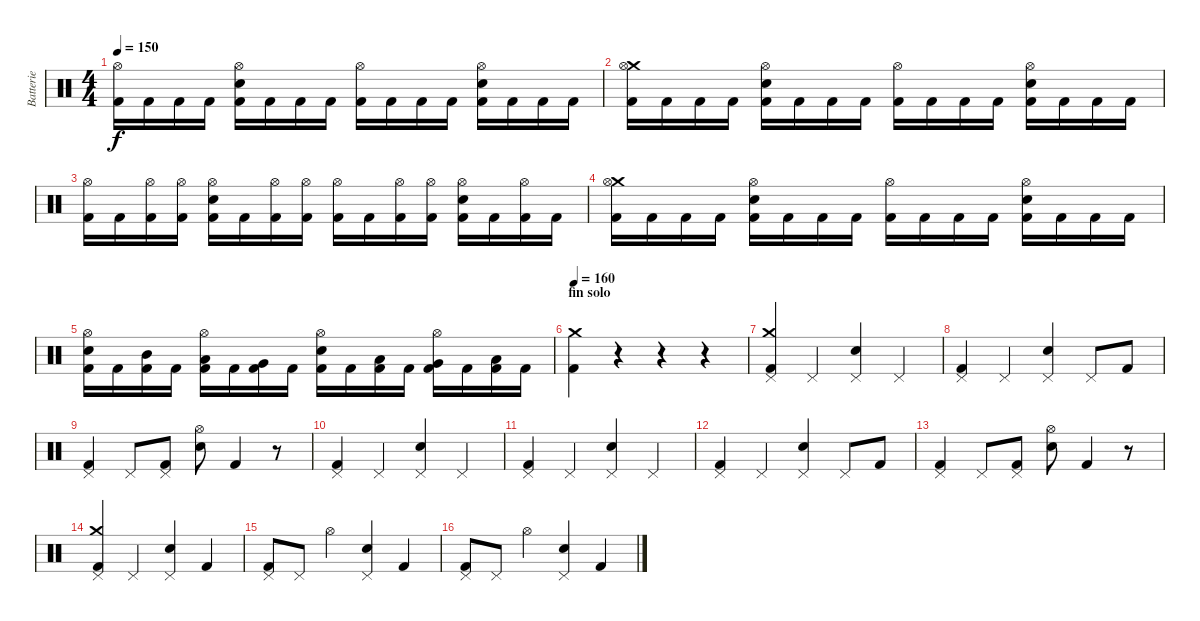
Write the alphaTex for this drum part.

\track ("Batterie" "Batterie") {instrument percussion}
\staff {score}
\articulation defaults
\ts (4 4)
\tempo 150
\clef neutral
\ks c
("Hi-Hat (open)" "Kick (hit) 2").16{dy f} "Kick (hit) 2".16 "Kick (hit) 2".16 "Kick (hit) 2".16 ("Electric Snare (hit)" "Hi-Hat (open)" "Kick (hit) 2").16 "Kick (hit) 2".16 "Kick (hit) 2".16 "Kick (hit) 2".16 ("Hi-Hat (open)" "Kick (hit) 2").16 "Kick (hit) 2".16 "Kick (hit) 2".16 "Kick (hit) 2".16 ("Electric Snare (hit)" "Hi-Hat (open)" "Kick (hit) 2").16 "Kick (hit) 2".16 "Kick (hit) 2".16 "Kick (hit) 2".16 |
("Crash medium (hit)" "Hi-Hat (open)" "Kick (hit) 2").16 "Kick (hit) 2".16 "Kick (hit) 2".16 "Kick (hit) 2".16 ("Electric Snare (hit)" "Hi-Hat (open)" "Kick (hit) 2").16 "Kick (hit) 2".16 "Kick (hit) 2".16 "Kick (hit) 2".16 ("Hi-Hat (open)" "Kick (hit) 2").16 "Kick (hit) 2".16 "Kick (hit) 2".16 "Kick (hit) 2".16 ("Electric Snare (hit)" "Hi-Hat (open)" "Kick (hit) 2").16 "Kick (hit) 2".16 "Kick (hit) 2".16 "Kick (hit) 2".16 |
("Hi-Hat (open)" "Kick (hit) 2").16 "Kick (hit) 2".16 ("Hi-Hat (open)" "Kick (hit) 2").16 ("Hi-Hat (open)" "Kick (hit) 2").16 ("Electric Snare (hit)" "Hi-Hat (open)" "Kick (hit) 2").16 "Kick (hit) 2".16 ("Hi-Hat (open)" "Kick (hit) 2").16 ("Hi-Hat (open)" "Kick (hit) 2").16 ("Hi-Hat (open)" "Kick (hit) 2").16 "Kick (hit) 2".16 ("Hi-Hat (open)" "Kick (hit) 2").16 ("Hi-Hat (open)" "Kick (hit) 2").16 ("Electric Snare (hit)" "Hi-Hat (open)" "Kick (hit) 2").16 "Kick (hit) 2".16 ("Hi-Hat (open)" "Kick (hit) 2").16 "Kick (hit) 2".16 |
("Crash medium (hit)" "Hi-Hat (open)" "Kick (hit) 2").16 "Kick (hit) 2".16 "Kick (hit) 2".16 "Kick (hit) 2".16 ("Electric Snare (hit)" "Hi-Hat (open)" "Kick (hit) 2").16 "Kick (hit) 2".16 "Kick (hit) 2".16 "Kick (hit) 2".16 ("Hi-Hat (open)" "Kick (hit) 2").16 "Kick (hit) 2".16 "Kick (hit) 2".16 "Kick (hit) 2".16 ("Electric Snare (hit)" "Hi-Hat (open)" "Kick (hit) 2").16 "Kick (hit) 2".16 "Kick (hit) 2".16 "Kick (hit) 2".16 |
("Electric Snare (hit)" "Hi-Hat (open)" "Kick (hit) 2").16 "Kick (hit) 2".16 ("Mid Tom (hit)" "Kick (hit) 2").16 "Kick (hit) 2".16 ("Low Tom (hit)" "Hi-Hat (open)" "Kick (hit) 2").16 "Kick (hit) 2".16 ("Very Low Tom (hit)" "Kick (hit) 2").16 "Kick (hit) 2".16 ("Electric Snare (hit)" "Hi-Hat (open)" "Kick (hit) 2").16 "Kick (hit) 2".16 ("Low Tom (hit)" "Kick (hit) 2").16 "Kick (hit) 2".16 ("Very Low Tom (hit)" "Hi-Hat (open)" "Kick (hit) 2").16 "Kick (hit) 2".16 ("Low Floor Tom (hit)" "Kick (hit) 2").16 "Kick (hit) 2".16 |
\section ("" "fin solo")
\tempo 160
("Crash medium (hit)" "Kick (hit) 2").4 r.4 r.4 r.4 |
("Crash medium (hit)" "Pedal Hi-Hat (hit)" "Kick (hit) 2").4 "Pedal Hi-Hat (hit)".4 ("Pedal Hi-Hat (hit)" "Electric Snare (hit)").4 "Pedal Hi-Hat (hit)".4 |
("Pedal Hi-Hat (hit)" "Kick (hit) 2").4 "Pedal Hi-Hat (hit)".4 ("Pedal Hi-Hat (hit)" "Electric Snare (hit)").4 "Pedal Hi-Hat (hit)".8 "Kick (hit) 2".8 |
("Pedal Hi-Hat (hit)" "Kick (hit) 2").4 "Pedal Hi-Hat (hit)".8 ("Pedal Hi-Hat (hit)" "Kick (hit) 2").8 ("Hi-Hat (open)" "Electric Snare (hit)").8 "Kick (hit) 2".4 r.8 |
("Pedal Hi-Hat (hit)" "Kick (hit) 2").4 "Pedal Hi-Hat (hit)".4 ("Pedal Hi-Hat (hit)" "Electric Snare (hit)").4 "Pedal Hi-Hat (hit)".4 |
("Pedal Hi-Hat (hit)" "Kick (hit) 2").4 "Pedal Hi-Hat (hit)".4 ("Pedal Hi-Hat (hit)" "Electric Snare (hit)").4 "Pedal Hi-Hat (hit)".4 |
("Pedal Hi-Hat (hit)" "Kick (hit) 2").4 "Pedal Hi-Hat (hit)".4 ("Pedal Hi-Hat (hit)" "Electric Snare (hit)").4 "Pedal Hi-Hat (hit)".8 "Kick (hit) 2".8 |
("Pedal Hi-Hat (hit)" "Kick (hit) 2").4 "Pedal Hi-Hat (hit)".8 ("Pedal Hi-Hat (hit)" "Kick (hit) 2").8 ("Hi-Hat (open)" "Electric Snare (hit)").8 "Kick (hit) 2".4 r.8 |
("Crash medium (hit)" "Pedal Hi-Hat (hit)" "Kick (hit) 2").4 "Pedal Hi-Hat (hit)".4 ("Pedal Hi-Hat (hit)" "Electric Snare (hit)").4 "Kick (hit) 2".4 |
("Pedal Hi-Hat (hit)" "Kick (hit) 2").8 "Pedal Hi-Hat (hit)".8 "Hi-Hat (open)".4 ("Pedal Hi-Hat (hit)" "Electric Snare (hit)").4 "Kick (hit) 2".4 |
("Pedal Hi-Hat (hit)" "Kick (hit) 2").8 "Pedal Hi-Hat (hit)".8 "Hi-Hat (open)".4 ("Pedal Hi-Hat (hit)" "Electric Snare (hit)").4 "Kick (hit) 2".4
